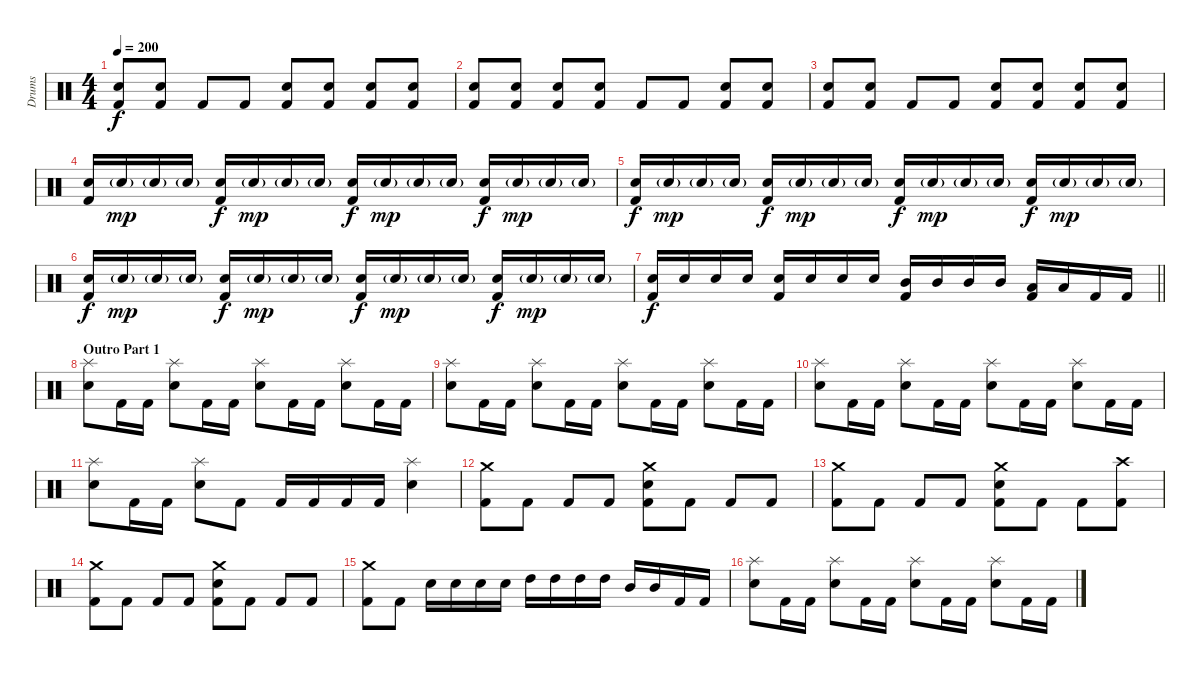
\track ("Drums" "Drums") {instrument percussion}
\staff {score}
\articulation defaults
\ts (4 4)
\tempo 200
\clef neutral
\ks c
("Electric Snare (hit)" "Kick (hit) 2").8{dy f} ("Electric Snare (hit)" "Kick (hit) 2").8 "Kick (hit) 2".8 "Kick (hit) 2".8 ("Electric Snare (hit)" "Kick (hit) 2").8 ("Electric Snare (hit)" "Kick (hit) 2").8 ("Electric Snare (hit)" "Kick (hit) 2").8 ("Electric Snare (hit)" "Kick (hit) 2").8 |
("Electric Snare (hit)" "Kick (hit) 2").8 ("Electric Snare (hit)" "Kick (hit) 2").8 ("Electric Snare (hit)" "Kick (hit) 2").8 ("Electric Snare (hit)" "Kick (hit) 2").8 "Kick (hit) 2".8 "Kick (hit) 2".8 ("Electric Snare (hit)" "Kick (hit) 2").8 ("Electric Snare (hit)" "Kick (hit) 2").8 |
("Electric Snare (hit)" "Kick (hit) 2").8 ("Electric Snare (hit)" "Kick (hit) 2").8 "Kick (hit) 2".8 "Kick (hit) 2".8 ("Electric Snare (hit)" "Kick (hit) 2").8 ("Electric Snare (hit)" "Kick (hit) 2").8 ("Electric Snare (hit)" "Kick (hit) 2").8 ("Electric Snare (hit)" "Kick (hit) 2").8 |
("Electric Snare (hit)" "Kick (hit) 2").16 "Electric Snare (hit)"{g}.16{dy mp} "Electric Snare (hit)"{g}.16 "Electric Snare (hit)"{g}.16 ("Electric Snare (hit)" "Kick (hit) 2").16{dy f} "Electric Snare (hit)"{g}.16{dy mp} "Electric Snare (hit)"{g}.16 "Electric Snare (hit)"{g}.16 ("Electric Snare (hit)" "Kick (hit) 2").16{dy f} "Electric Snare (hit)"{g}.16{dy mp} "Electric Snare (hit)"{g}.16 "Electric Snare (hit)"{g}.16 ("Electric Snare (hit)" "Kick (hit) 2").16{dy f} "Electric Snare (hit)"{g}.16{dy mp} "Electric Snare (hit)"{g}.16 "Electric Snare (hit)"{g}.16 |
("Electric Snare (hit)" "Kick (hit) 2").16{dy f} "Electric Snare (hit)"{g}.16{dy mp} "Electric Snare (hit)"{g}.16 "Electric Snare (hit)"{g}.16 ("Electric Snare (hit)" "Kick (hit) 2").16{dy f} "Electric Snare (hit)"{g}.16{dy mp} "Electric Snare (hit)"{g}.16 "Electric Snare (hit)"{g}.16 ("Electric Snare (hit)" "Kick (hit) 2").16{dy f} "Electric Snare (hit)"{g}.16{dy mp} "Electric Snare (hit)"{g}.16 "Electric Snare (hit)"{g}.16 ("Electric Snare (hit)" "Kick (hit) 2").16{dy f} "Electric Snare (hit)"{g}.16{dy mp} "Electric Snare (hit)"{g}.16 "Electric Snare (hit)"{g}.16 |
("Electric Snare (hit)" "Kick (hit) 2").16{dy f} "Electric Snare (hit)"{g}.16{dy mp} "Electric Snare (hit)"{g}.16 "Electric Snare (hit)"{g}.16 ("Electric Snare (hit)" "Kick (hit) 2").16{dy f} "Electric Snare (hit)"{g}.16{dy mp} "Electric Snare (hit)"{g}.16 "Electric Snare (hit)"{g}.16 ("Electric Snare (hit)" "Kick (hit) 2").16{dy f} "Electric Snare (hit)"{g}.16{dy mp} "Electric Snare (hit)"{g}.16 "Electric Snare (hit)"{g}.16 ("Electric Snare (hit)" "Kick (hit) 2").16{dy f} "Electric Snare (hit)"{g}.16{dy mp} "Electric Snare (hit)"{g}.16 "Electric Snare (hit)"{g}.16 |
\barLineRight lightlight
("Electric Snare (hit)" "Kick (hit) 2").16{dy f} "Electric Snare (hit)".16 "Electric Snare (hit)".16 "Electric Snare (hit)".16 ("Electric Snare (hit)" "Kick (hit) 2").16 "Electric Snare (hit)".16 "Electric Snare (hit)".16 "Electric Snare (hit)".16 ("Mid Tom (hit)" "Kick (hit) 2").16 "Mid Tom (hit)".16 "Mid Tom (hit)".16 "Mid Tom (hit)".16 ("Low Tom (hit)" "Kick (hit) 2").16 "Low Tom (hit)".16 "Kick (hit) 2".16 "Kick (hit) 2".16 |
\section ("" "Outro Part 1")
("Splash (hit)" "Electric Snare (hit)").8 "Kick (hit) 2".16 "Kick (hit) 2".16 ("Splash (hit)" "Electric Snare (hit)").8 "Kick (hit) 2".16 "Kick (hit) 2".16 ("Splash (hit)" "Electric Snare (hit)").8 "Kick (hit) 2".16 "Kick (hit) 2".16 ("Splash (hit)" "Electric Snare (hit)").8 "Kick (hit) 2".16 "Kick (hit) 2".16 |
("Splash (hit)" "Electric Snare (hit)").8 "Kick (hit) 2".16 "Kick (hit) 2".16 ("Splash (hit)" "Electric Snare (hit)").8 "Kick (hit) 2".16 "Kick (hit) 2".16 ("Splash (hit)" "Electric Snare (hit)").8 "Kick (hit) 2".16 "Kick (hit) 2".16 ("Splash (hit)" "Electric Snare (hit)").8 "Kick (hit) 2".16 "Kick (hit) 2".16 |
("Splash (hit)" "Electric Snare (hit)").8 "Kick (hit) 2".16 "Kick (hit) 2".16 ("Splash (hit)" "Electric Snare (hit)").8 "Kick (hit) 2".16 "Kick (hit) 2".16 ("Splash (hit)" "Electric Snare (hit)").8 "Kick (hit) 2".16 "Kick (hit) 2".16 ("Splash (hit)" "Electric Snare (hit)").8 "Kick (hit) 2".16 "Kick (hit) 2".16 |
("Splash (hit)" "Electric Snare (hit)").8 "Kick (hit) 2".16 "Kick (hit) 2".16 ("Splash (hit)" "Electric Snare (hit)").8 "Kick (hit) 2".8 "Kick (hit) 2".16 "Kick (hit) 2".16 "Kick (hit) 2".16 "Kick (hit) 2".16 ("Splash (hit)" "Electric Snare (hit)").4 |
("Crash medium (hit)" "Kick (hit) 2").8 "Kick (hit) 2".8 "Kick (hit) 2".8 "Kick (hit) 2".8 ("Crash medium (hit)" "Electric Snare (hit)" "Kick (hit) 2").8 "Kick (hit) 2".8 "Kick (hit) 2".8 "Kick (hit) 2".8 |
("Crash medium (hit)" "Kick (hit) 2").8 "Kick (hit) 2".8 "Kick (hit) 2".8 "Kick (hit) 2".8 ("Crash medium (hit)" "Electric Snare (hit)" "Kick (hit) 2").8 "Kick (hit) 2".8 "Kick (hit) 2".8 ("Crash high (hit)" "Kick (hit) 2").8 |
("Crash medium (hit)" "Kick (hit) 2").8 "Kick (hit) 2".8 "Kick (hit) 2".8 "Kick (hit) 2".8 ("Crash medium (hit)" "Electric Snare (hit)" "Kick (hit) 2").8 "Kick (hit) 2".8 "Kick (hit) 2".8 "Kick (hit) 2".8 |
("Crash medium (hit)" "Kick (hit) 2").8 "Kick (hit) 2".8 "Electric Snare (hit)".16 "Electric Snare (hit)".16 "Electric Snare (hit)".16 "Electric Snare (hit)".16 "High Tom (hit)".16 "High Tom (hit)".16 "High Tom (hit)".16 "High Tom (hit)".16 "Mid Tom (hit)".16 "Mid Tom (hit)".16 "Kick (hit) 2".16 "Kick (hit) 2".16 |
("Splash (hit)" "Electric Snare (hit)").8 "Kick (hit) 2".16 "Kick (hit) 2".16 ("Splash (hit)" "Electric Snare (hit)").8 "Kick (hit) 2".16 "Kick (hit) 2".16 ("Splash (hit)" "Electric Snare (hit)").8 "Kick (hit) 2".16 "Kick (hit) 2".16 ("Splash (hit)" "Electric Snare (hit)").8 "Kick (hit) 2".16 "Kick (hit) 2".16
